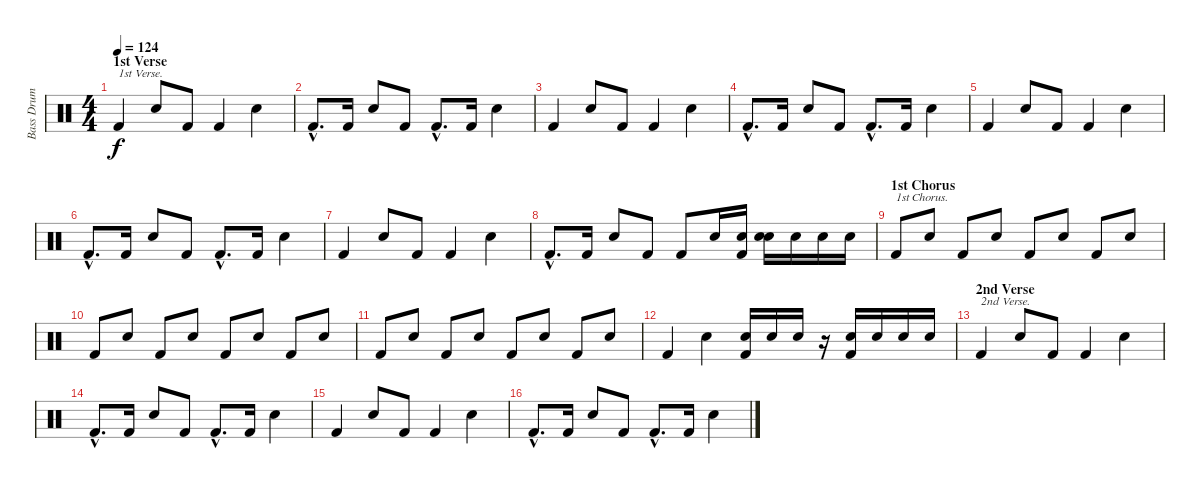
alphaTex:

\track ("Bass Drum and Snares" "Bass Drum ") {instrument percussion}
\staff {score}
\articulation defaults
\ts (4 4)
\section ("" "1st Verse")
\tempo 124
\clef neutral
\ks c "Kick (hit) 2".4{txt "1st Verse." dy f} "Snare (hit) 2".8 "Kick (hit) 2".8 "Kick (hit) 2".4 "Snare (hit) 2".4
|
"Kick (hit) 2"{hac}.8{d} "Kick (hit) 2".16 "Snare (hit) 2".8 "Kick (hit) 2".8 "Kick (hit) 2"{hac}.8{d} "Kick (hit) 2".16 "Snare (hit) 2".4 |
"Kick (hit) 2".4 "Snare (hit) 2".8 "Kick (hit) 2".8 "Kick (hit) 2".4 "Snare (hit) 2".4 |
"Kick (hit) 2"{hac}.8{d} "Kick (hit) 2".16 "Snare (hit) 2".8 "Kick (hit) 2".8 "Kick (hit) 2"{hac}.8{d} "Kick (hit) 2".16 "Snare (hit) 2".4 |
"Kick (hit) 2".4 "Snare (hit) 2".8 "Kick (hit) 2".8 "Kick (hit) 2".4 "Snare (hit) 2".4 |
"Kick (hit) 2"{hac}.8{d} "Kick (hit) 2".16 "Snare (hit) 2".8 "Kick (hit) 2".8 "Kick (hit) 2"{hac}.8{d} "Kick (hit) 2".16 "Snare (hit) 2".4 |
"Kick (hit) 2".4 "Snare (hit) 2".8 "Kick (hit) 2".8 "Kick (hit) 2".4 "Snare (hit) 2".4 |
"Kick (hit) 2"{hac}.8{d} "Kick (hit) 2".16 "Snare (hit) 2".8 "Kick (hit) 2".8 "Kick (hit) 2".8 "Electric Snare (hit)".16 ("Electric Snare (hit)" "Kick (hit) 2").16 ("Electric Snare (hit)" "Snare (hit) 2").16 "Electric Snare (hit)".16 "Electric Snare (hit)".16 "Electric Snare (hit)".16 |
\section ("" "1st Chorus")
"Kick (hit) 2".8{txt "1st Chorus."} "Snare (hit) 2".8 "Kick (hit) 2".8 "Snare (hit) 2".8 "Kick (hit) 2".8 "Snare (hit) 2".8 "Kick (hit) 2".8 "Snare (hit) 2".8 |
"Kick (hit) 2".8 "Snare (hit) 2".8 "Kick (hit) 2".8 "Snare (hit) 2".8 "Kick (hit) 2".8 "Snare (hit) 2".8 "Kick (hit) 2".8 "Snare (hit) 2".8 |
"Kick (hit) 2".8 "Snare (hit) 2".8 "Kick (hit) 2".8 "Snare (hit) 2".8 "Kick (hit) 2".8 "Snare (hit) 2".8 "Kick (hit) 2".8 "Snare (hit) 2".8 |
"Kick (hit) 2".4 "Snare (hit) 2".4 ("Electric Snare (hit)" "Kick (hit) 2").16 "Electric Snare (hit)".16 "Electric Snare (hit)".16 r.16 ("Electric Snare (hit)" "Kick (hit) 2").16 "Electric Snare (hit)".16 "Electric Snare (hit)".16 "Electric Snare (hit)".16 |
\section ("" "2nd Verse")
"Kick (hit) 2".4{txt "2nd Verse."} "Snare (hit) 2".8 "Kick (hit) 2".8 "Kick (hit) 2".4 "Snare (hit) 2".4 |
"Kick (hit) 2"{hac}.8{d} "Kick (hit) 2".16 "Snare (hit) 2".8 "Kick (hit) 2".8 "Kick (hit) 2"{hac}.8{d} "Kick (hit) 2".16 "Snare (hit) 2".4 |
"Kick (hit) 2".4 "Snare (hit) 2".8 "Kick (hit) 2".8 "Kick (hit) 2".4 "Snare (hit) 2".4 |
"Kick (hit) 2"{hac}.8{d} "Kick (hit) 2".16 "Snare (hit) 2".8 "Kick (hit) 2".8 "Kick (hit) 2"{hac}.8{d} "Kick (hit) 2".16 "Snare (hit) 2".4
